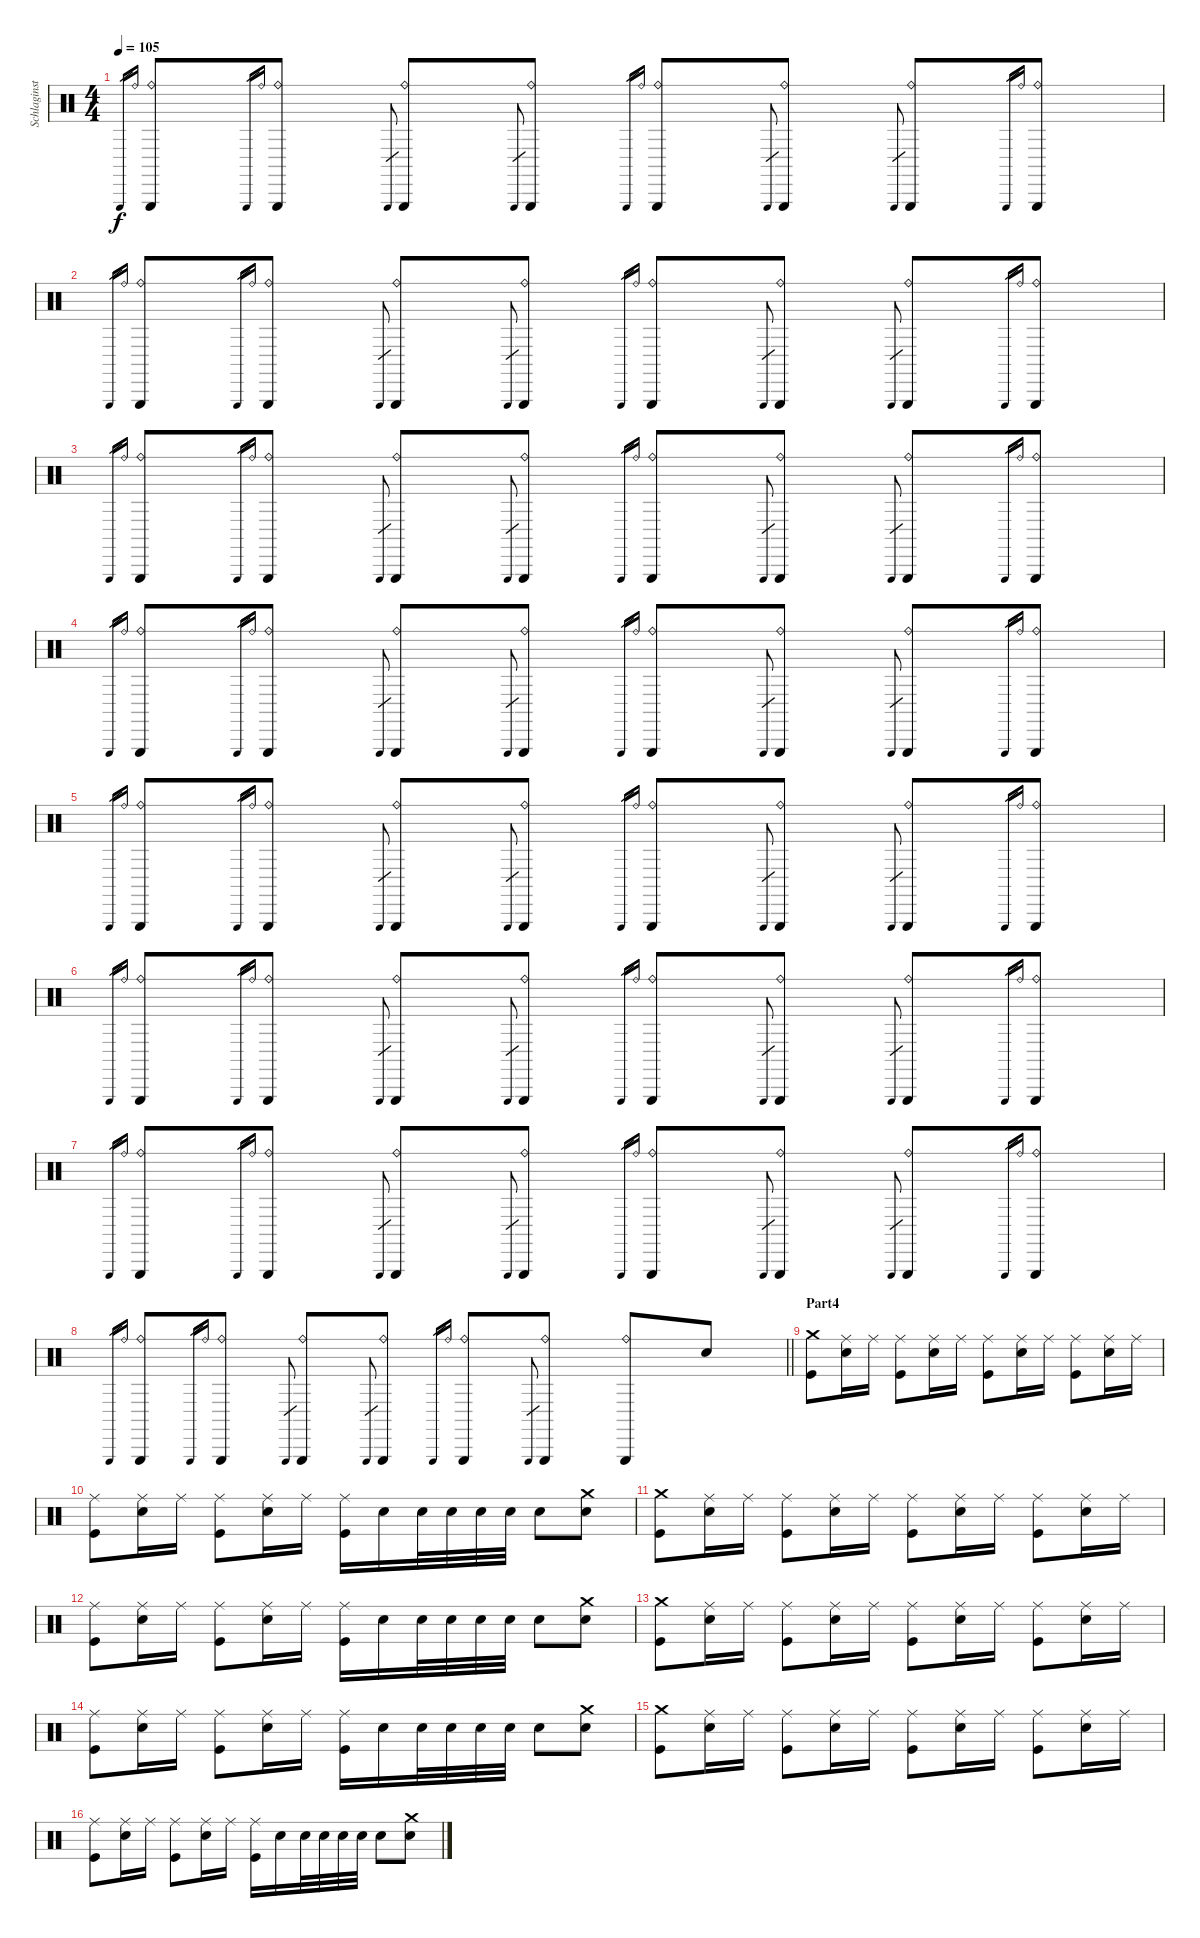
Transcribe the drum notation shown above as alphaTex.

\track ("Schlaginstrumente - Auswahl" "Schlaginst") {instrument percussion}
\staff {score}
\articulation defaults
\ts (4 4)
\tempo 105
\clef neutral
\ks c "Triangle (hit)".16{gr dy f} "Ride (bell)".16{gr}
("Triangle (hit)" "Ride (bell)").8 "Triangle (hit)".16{gr} "Ride (bell)".16{gr} ("Triangle (hit)" "Ride (bell)").8 "Triangle (hit)".8{gr} ("Triangle (hit)" "Ride (bell)").8 "Triangle (hit)".8{gr} ("Triangle (hit)" "Ride (bell)").8 "Triangle (hit)".16{gr} "Ride (bell)".16{gr} ("Triangle (hit)" "Ride (bell)").8 "Triangle (hit)".8{gr} ("Triangle (hit)" "Ride (bell)").8 "Triangle (hit)".8{gr} ("Triangle (hit)" "Ride (bell)").8 "Triangle (hit)".16{gr} "Ride (bell)".16{gr} ("Triangle (hit)" "Ride (bell)").8 |
"Triangle (hit)".16{gr} "Ride (bell)".16{gr} ("Triangle (hit)" "Ride (bell)").8 "Triangle (hit)".16{gr} "Ride (bell)".16{gr} ("Triangle (hit)" "Ride (bell)").8 "Triangle (hit)".8{gr} ("Triangle (hit)" "Ride (bell)").8 "Triangle (hit)".8{gr} ("Triangle (hit)" "Ride (bell)").8 "Triangle (hit)".16{gr} "Ride (bell)".16{gr} ("Triangle (hit)" "Ride (bell)").8 "Triangle (hit)".8{gr} ("Triangle (hit)" "Ride (bell)").8 "Triangle (hit)".8{gr} ("Triangle (hit)" "Ride (bell)").8 "Triangle (hit)".16{gr} "Ride (bell)".16{gr} ("Triangle (hit)" "Ride (bell)").8 |
"Triangle (hit)".16{gr} "Ride (bell)".16{gr} ("Triangle (hit)" "Ride (bell)").8 "Triangle (hit)".16{gr} "Ride (bell)".16{gr} ("Triangle (hit)" "Ride (bell)").8 "Triangle (hit)".8{gr} ("Triangle (hit)" "Ride (bell)").8 "Triangle (hit)".8{gr} ("Triangle (hit)" "Ride (bell)").8 "Triangle (hit)".16{gr} "Ride (bell)".16{gr} ("Triangle (hit)" "Ride (bell)").8 "Triangle (hit)".8{gr} ("Triangle (hit)" "Ride (bell)").8 "Triangle (hit)".8{gr} ("Triangle (hit)" "Ride (bell)").8 "Triangle (hit)".16{gr} "Ride (bell)".16{gr} ("Triangle (hit)" "Ride (bell)").8 |
"Triangle (hit)".16{gr} "Ride (bell)".16{gr} ("Triangle (hit)" "Ride (bell)").8 "Triangle (hit)".16{gr} "Ride (bell)".16{gr} ("Triangle (hit)" "Ride (bell)").8 "Triangle (hit)".8{gr} ("Triangle (hit)" "Ride (bell)").8 "Triangle (hit)".8{gr} ("Triangle (hit)" "Ride (bell)").8 "Triangle (hit)".16{gr} "Ride (bell)".16{gr} ("Triangle (hit)" "Ride (bell)").8 "Triangle (hit)".8{gr} ("Triangle (hit)" "Ride (bell)").8 "Triangle (hit)".8{gr} ("Triangle (hit)" "Ride (bell)").8 "Triangle (hit)".16{gr} "Ride (bell)".16{gr} ("Triangle (hit)" "Ride (bell)").8 |
"Triangle (hit)".16{gr} "Ride (bell)".16{gr} ("Triangle (hit)" "Ride (bell)").8 "Triangle (hit)".16{gr} "Ride (bell)".16{gr} ("Triangle (hit)" "Ride (bell)").8 "Triangle (hit)".8{gr} ("Triangle (hit)" "Ride (bell)").8 "Triangle (hit)".8{gr} ("Triangle (hit)" "Ride (bell)").8 "Triangle (hit)".16{gr} "Ride (bell)".16{gr} ("Triangle (hit)" "Ride (bell)").8 "Triangle (hit)".8{gr} ("Triangle (hit)" "Ride (bell)").8 "Triangle (hit)".8{gr} ("Triangle (hit)" "Ride (bell)").8 "Triangle (hit)".16{gr} "Ride (bell)".16{gr} ("Triangle (hit)" "Ride (bell)").8 |
"Triangle (hit)".16{gr} "Ride (bell)".16{gr} ("Triangle (hit)" "Ride (bell)").8 "Triangle (hit)".16{gr} "Ride (bell)".16{gr} ("Triangle (hit)" "Ride (bell)").8 "Triangle (hit)".8{gr} ("Triangle (hit)" "Ride (bell)").8 "Triangle (hit)".8{gr} ("Triangle (hit)" "Ride (bell)").8 "Triangle (hit)".16{gr} "Ride (bell)".16{gr} ("Triangle (hit)" "Ride (bell)").8 "Triangle (hit)".8{gr} ("Triangle (hit)" "Ride (bell)").8 "Triangle (hit)".8{gr} ("Triangle (hit)" "Ride (bell)").8 "Triangle (hit)".16{gr} "Ride (bell)".16{gr} ("Triangle (hit)" "Ride (bell)").8 |
"Triangle (hit)".16{gr} "Ride (bell)".16{gr} ("Triangle (hit)" "Ride (bell)").8 "Triangle (hit)".16{gr} "Ride (bell)".16{gr} ("Triangle (hit)" "Ride (bell)").8 "Triangle (hit)".8{gr} ("Triangle (hit)" "Ride (bell)").8 "Triangle (hit)".8{gr} ("Triangle (hit)" "Ride (bell)").8 "Triangle (hit)".16{gr} "Ride (bell)".16{gr} ("Triangle (hit)" "Ride (bell)").8 "Triangle (hit)".8{gr} ("Triangle (hit)" "Ride (bell)").8 "Triangle (hit)".8{gr} ("Triangle (hit)" "Ride (bell)").8 "Triangle (hit)".16{gr} "Ride (bell)".16{gr} ("Triangle (hit)" "Ride (bell)").8 |
\barLineRight lightlight "Triangle (hit)".16{gr} "Ride (bell)".16{gr}
("Triangle (hit)" "Ride (bell)").8 "Triangle (hit)".16{gr} "Ride (bell)".16{gr} ("Triangle (hit)" "Ride (bell)").8 "Triangle (hit)".8{gr} ("Triangle (hit)" "Ride (bell)").8 "Triangle (hit)".8{gr} ("Triangle (hit)" "Ride (bell)").8 "Triangle (hit)".16{gr} "Ride (bell)".16{gr} ("Triangle (hit)" "Ride (bell)").8 "Triangle (hit)".8{gr} ("Triangle (hit)" "Ride (bell)").8 ("Triangle (hit)" "Ride (bell)").8 "Snare (hit) 2".8 |
\section ("" "Part4")
("Crash medium (hit)" "Kick (hit)").8 ("Ride (middle)" "Snare (hit) 2").16 "Ride (middle)".16 ("Ride (middle)" "Kick (hit)").8 ("Ride (middle)" "Snare (hit) 2").16 "Ride (middle)".16 ("Ride (middle)" "Kick (hit)").8 ("Ride (middle)" "Snare (hit) 2").16 "Ride (middle)".16 ("Ride (middle)" "Kick (hit)").8 ("Ride (middle)" "Snare (hit) 2").16 "Ride (middle)".16 |
("Ride (middle)" "Kick (hit)").8 ("Ride (middle)" "Snare (hit) 2").16 "Ride (middle)".16 ("Ride (middle)" "Kick (hit)").8 ("Ride (middle)" "Snare (hit) 2").16 "Ride (middle)".16 ("Ride (middle)" "Kick (hit)").16 "Snare (hit) 2".16 "Snare (hit) 2".32 "Snare (hit) 2".32 "Snare (hit) 2".32 "Snare (hit) 2".32 "Snare (hit) 2".8 ("Crash medium (hit)" "Snare (hit) 2").8 |
("Crash medium (hit)" "Kick (hit)").8 ("Ride (middle)" "Snare (hit) 2").16 "Ride (middle)".16 ("Ride (middle)" "Kick (hit)").8 ("Ride (middle)" "Snare (hit) 2").16 "Ride (middle)".16 ("Ride (middle)" "Kick (hit)").8 ("Ride (middle)" "Snare (hit) 2").16 "Ride (middle)".16 ("Ride (middle)" "Kick (hit)").8 ("Ride (middle)" "Snare (hit) 2").16 "Ride (middle)".16 |
("Ride (middle)" "Kick (hit)").8 ("Ride (middle)" "Snare (hit) 2").16 "Ride (middle)".16 ("Ride (middle)" "Kick (hit)").8 ("Ride (middle)" "Snare (hit) 2").16 "Ride (middle)".16 ("Ride (middle)" "Kick (hit)").16 "Snare (hit) 2".16 "Snare (hit) 2".32 "Snare (hit) 2".32 "Snare (hit) 2".32 "Snare (hit) 2".32 "Snare (hit) 2".8 ("Crash medium (hit)" "Snare (hit) 2").8 |
("Crash medium (hit)" "Kick (hit)").8 ("Ride (middle)" "Snare (hit) 2").16 "Ride (middle)".16 ("Ride (middle)" "Kick (hit)").8 ("Ride (middle)" "Snare (hit) 2").16 "Ride (middle)".16 ("Ride (middle)" "Kick (hit)").8 ("Ride (middle)" "Snare (hit) 2").16 "Ride (middle)".16 ("Ride (middle)" "Kick (hit)").8 ("Ride (middle)" "Snare (hit) 2").16 "Ride (middle)".16 |
("Ride (middle)" "Kick (hit)").8 ("Ride (middle)" "Snare (hit) 2").16 "Ride (middle)".16 ("Ride (middle)" "Kick (hit)").8 ("Ride (middle)" "Snare (hit) 2").16 "Ride (middle)".16 ("Ride (middle)" "Kick (hit)").16 "Snare (hit) 2".16 "Snare (hit) 2".32 "Snare (hit) 2".32 "Snare (hit) 2".32 "Snare (hit) 2".32 "Snare (hit) 2".8 ("Crash medium (hit)" "Snare (hit) 2").8 |
("Crash medium (hit)" "Kick (hit)").8 ("Ride (middle)" "Snare (hit) 2").16 "Ride (middle)".16 ("Ride (middle)" "Kick (hit)").8 ("Ride (middle)" "Snare (hit) 2").16 "Ride (middle)".16 ("Ride (middle)" "Kick (hit)").8 ("Ride (middle)" "Snare (hit) 2").16 "Ride (middle)".16 ("Ride (middle)" "Kick (hit)").8 ("Ride (middle)" "Snare (hit) 2").16 "Ride (middle)".16 |
("Ride (middle)" "Kick (hit)").8 ("Ride (middle)" "Snare (hit) 2").16 "Ride (middle)".16 ("Ride (middle)" "Kick (hit)").8 ("Ride (middle)" "Snare (hit) 2").16 "Ride (middle)".16 ("Ride (middle)" "Kick (hit)").16 "Snare (hit) 2".16 "Snare (hit) 2".32 "Snare (hit) 2".32 "Snare (hit) 2".32 "Snare (hit) 2".32 "Snare (hit) 2".8 ("Crash medium (hit)" "Snare (hit) 2").8
